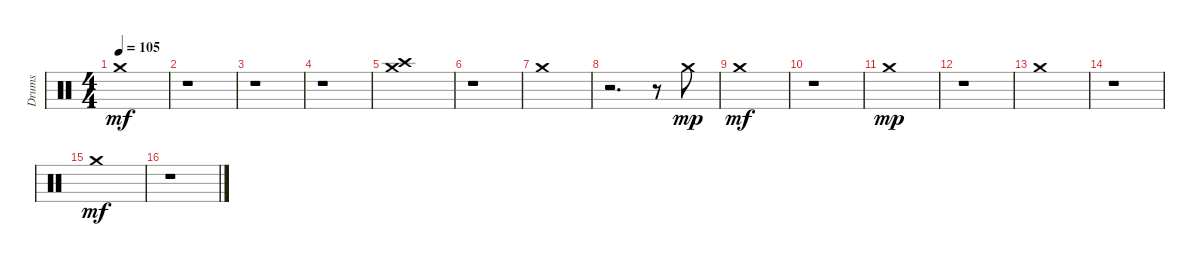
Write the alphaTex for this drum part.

\track ("Drums" "Drums") {instrument percussion}
\staff {score}
\articulation defaults
\ts (4 4)
\tempo 105
\clef neutral
\ks c "Crash medium (hit)".1{dy mf}
|
r.1 |
r.1 |
r.1 |
("Crash high (hit)" "Crash medium (hit)").1 |
r.1 |
"Crash medium (hit)".1 |
r.2{d} r.8 "Crash medium (hit)".8{dy mp} |
"Crash medium (hit)".1{dy mf} |
r.1 |
"Crash medium (hit)".1{dy mp} |
r.1 |
"Crash medium (hit)".1 |
r.1 |
"Crash medium (hit)".1{dy mf} |
r.1
